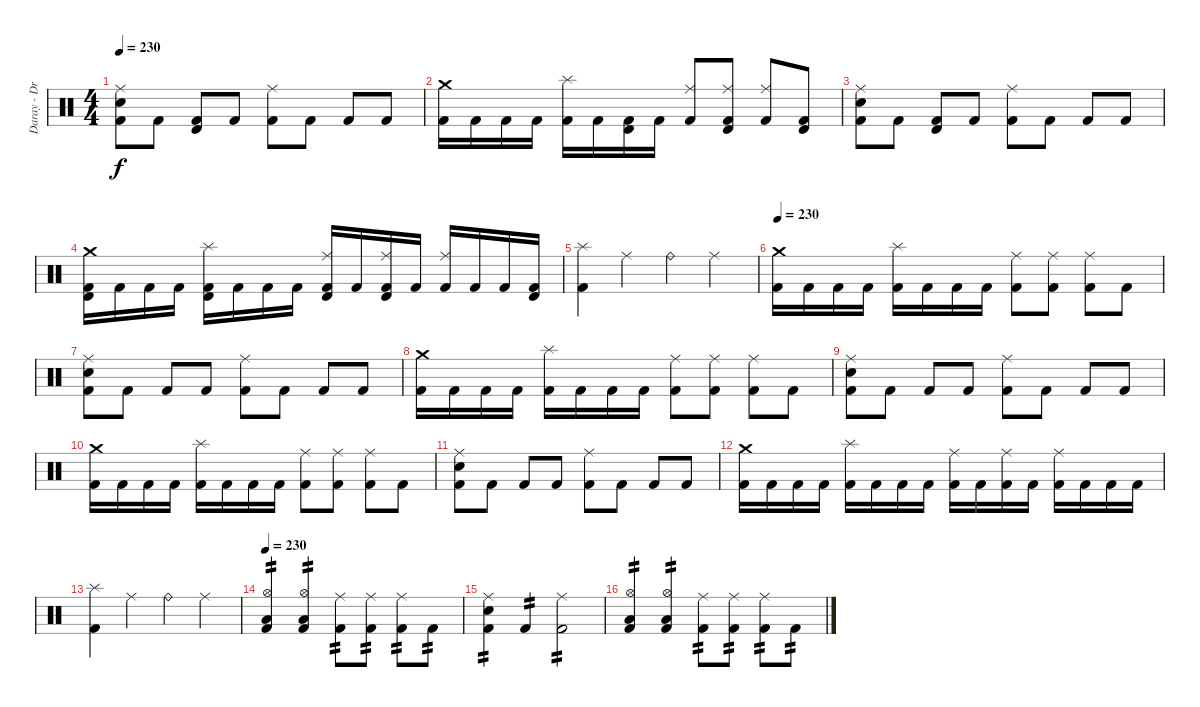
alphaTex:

\track ("Daray - Drums" "Daray - Dr") {instrument percussion}
\staff {score}
\articulation defaults
\ts (4 4)
\tempo 230
\clef neutral
\ks c
("Ride (middle)" "Electric Snare (hit)" "Kick (hit) 2").8{dy f} "Kick (hit) 2".8 ("Timbale high (hit)" "Kick (hit) 2").8 "Kick (hit) 2".8 ("Ride (middle)" "Kick (hit) 2").8 "Kick (hit) 2".8 "Kick (hit) 2".8 "Kick (hit) 2".8 |
("Crash medium (hit)" "Kick (hit) 2").16 "Kick (hit) 2".16 "Kick (hit) 2".16 "Kick (hit) 2".16 ("Splash (hit)" "Kick (hit) 2").16 "Kick (hit) 2".16 ("Timbale high (hit)" "Kick (hit) 2").16 "Kick (hit) 2".16 ("Ride (middle)" "Kick (hit) 2").8 ("Ride (middle)" "Timbale high (hit)" "Kick (hit) 2").8 ("Ride (middle)" "Kick (hit) 2").8 ("Timbale high (hit)" "Kick (hit) 2").8 |
("Ride (middle)" "Electric Snare (hit)" "Kick (hit) 2").8 "Kick (hit) 2".8 ("Timbale high (hit)" "Kick (hit) 2").8 "Kick (hit) 2".8 ("Ride (middle)" "Kick (hit) 2").8 "Kick (hit) 2".8 "Kick (hit) 2".8 "Kick (hit) 2".8 |
("Crash medium (hit)" "Timbale high (hit)" "Kick (hit) 2").16 "Kick (hit) 2".16 "Kick (hit) 2".16 "Kick (hit) 2".16 ("Splash (hit)" "Timbale high (hit)" "Kick (hit) 2").16 "Kick (hit) 2".16 "Kick (hit) 2".16 "Kick (hit) 2".16 ("Ride (middle)" "Timbale high (hit)" "Kick (hit) 2").16 "Kick (hit) 2".16 ("Ride (middle)" "Timbale high (hit)" "Kick (hit) 2").16 "Kick (hit) 2".16 ("Ride (middle)" "Kick (hit) 2").16 "Kick (hit) 2".16 "Kick (hit) 2".16 ("Timbale high (hit)" "Kick (hit) 2").16 |
("Splash (hit)" "Kick (hit) 2").4 "Ride (middle)".4 "Ride (bell)".4 "Ride (middle)".4 |
\tempo 230
("Crash medium (hit)" "Kick (hit) 2").16 "Kick (hit) 2".16 "Kick (hit) 2".16 "Kick (hit) 2".16 ("Splash (hit)" "Kick (hit) 2").16 "Kick (hit) 2".16 "Kick (hit) 2".16 "Kick (hit) 2".16 ("Ride (middle)" "Kick (hit) 2").8 ("Ride (middle)" "Kick (hit) 2").8 ("Ride (middle)" "Kick (hit) 2").8 "Kick (hit) 2".8 |
("Ride (middle)" "Electric Snare (hit)" "Kick (hit) 2").8 "Kick (hit) 2".8 "Kick (hit) 2".8 "Kick (hit) 2".8 ("Ride (middle)" "Kick (hit) 2").8 "Kick (hit) 2".8 "Kick (hit) 2".8 "Kick (hit) 2".8 |
("Crash medium (hit)" "Kick (hit) 2").16 "Kick (hit) 2".16 "Kick (hit) 2".16 "Kick (hit) 2".16 ("Splash (hit)" "Kick (hit) 2").16 "Kick (hit) 2".16 "Kick (hit) 2".16 "Kick (hit) 2".16 ("Ride (middle)" "Kick (hit) 2").8 ("Ride (middle)" "Kick (hit) 2").8 ("Ride (middle)" "Kick (hit) 2").8 "Kick (hit) 2".8 |
("Ride (middle)" "Electric Snare (hit)" "Kick (hit) 2").8 "Kick (hit) 2".8 "Kick (hit) 2".8 "Kick (hit) 2".8 ("Ride (middle)" "Kick (hit) 2").8 "Kick (hit) 2".8 "Kick (hit) 2".8 "Kick (hit) 2".8 |
("Crash medium (hit)" "Kick (hit) 2").16 "Kick (hit) 2".16 "Kick (hit) 2".16 "Kick (hit) 2".16 ("Splash (hit)" "Kick (hit) 2").16 "Kick (hit) 2".16 "Kick (hit) 2".16 "Kick (hit) 2".16 ("Ride (middle)" "Kick (hit) 2").8 ("Ride (middle)" "Kick (hit) 2").8 ("Ride (middle)" "Kick (hit) 2").8 "Kick (hit) 2".8 |
("Ride (middle)" "Electric Snare (hit)" "Kick (hit) 2").8 "Kick (hit) 2".8 "Kick (hit) 2".8 "Kick (hit) 2".8 ("Ride (middle)" "Kick (hit) 2").8 "Kick (hit) 2".8 "Kick (hit) 2".8 "Kick (hit) 2".8 |
("Crash medium (hit)" "Kick (hit) 2").16 "Kick (hit) 2".16 "Kick (hit) 2".16 "Kick (hit) 2".16 ("Splash (hit)" "Kick (hit) 2").16 "Kick (hit) 2".16 "Kick (hit) 2".16 "Kick (hit) 2".16 ("Ride (middle)" "Kick (hit) 2").16 "Kick (hit) 2".16 ("Ride (middle)" "Kick (hit) 2").16 "Kick (hit) 2".16 ("Ride (middle)" "Kick (hit) 2").16 "Kick (hit) 2".16 "Kick (hit) 2".16 "Kick (hit) 2".16 |
("Splash (hit)" "Kick (hit) 2").4 "Ride (middle)".4 "Ride (bell)".4 "Ride (middle)".4 |
\tempo 230
("Hi-Hat (open)" "Low Floor Tom (hit)" "Kick (hit) 2").4{tp 2} ("Hi-Hat (open)" "Low Floor Tom (hit)" "Kick (hit) 2").4{tp 2} ("Ride (middle)" "Kick (hit) 2").8{tp 2} ("Ride (middle)" "Kick (hit) 2").8{tp 2} ("Ride (middle)" "Kick (hit) 2").8{tp 2} "Kick (hit) 2".8{tp 2} |
("Ride (middle)" "Electric Snare (hit)" "Kick (hit) 2").4{tp 2} "Kick (hit) 2".4{tp 2} ("Ride (middle)" "Kick (hit) 2").2{tp 2} |
("Hi-Hat (open)" "Low Floor Tom (hit)" "Kick (hit) 2").4{tp 2} ("Hi-Hat (open)" "Low Floor Tom (hit)" "Kick (hit) 2").4{tp 2} ("Ride (middle)" "Kick (hit) 2").8{tp 2} ("Ride (middle)" "Kick (hit) 2").8{tp 2} ("Ride (middle)" "Kick (hit) 2").8{tp 2} "Kick (hit) 2".8{tp 2}
